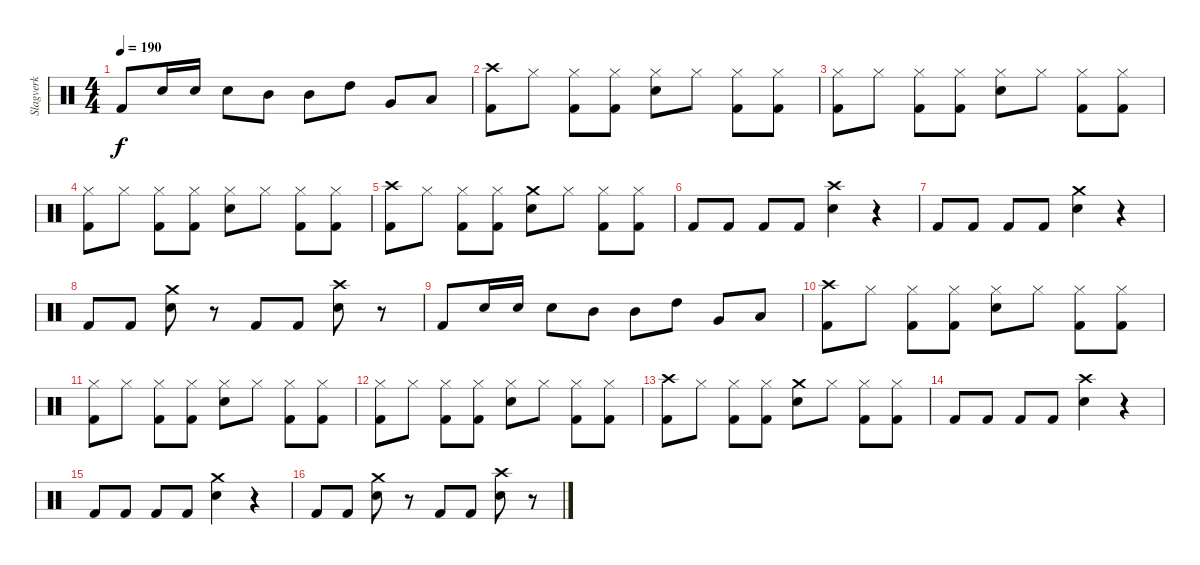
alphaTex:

\track ("Slagverk" "Slagverk") {instrument percussion}
\staff {score}
\articulation defaults
\ts (4 4)
\tempo 190
\clef neutral
\ks c "Kick (hit) 2".8{dy f} "Snare (hit) 2".16 "Snare (hit) 2".16 "Snare (hit) 2".8 "Mid Tom (hit)".8 "Mid Tom (hit)".8 "High Tom (hit)".8 "Very Low Tom (hit)".8 "Low Floor Tom (hit)".8
|
("Crash high (hit)" "Kick (hit) 2").8 "Hi-Hat (closed)".8 ("Hi-Hat (closed)" "Kick (hit) 2").8 ("Hi-Hat (closed)" "Kick (hit) 2").8 ("Hi-Hat (closed)" "Snare (hit) 2").8 "Hi-Hat (closed)".8 ("Hi-Hat (closed)" "Kick (hit) 2").8 ("Hi-Hat (closed)" "Kick (hit) 2").8 |
("Hi-Hat (closed)" "Kick (hit) 2").8 "Hi-Hat (closed)".8 ("Hi-Hat (closed)" "Kick (hit) 2").8 ("Hi-Hat (closed)" "Kick (hit) 2").8 ("Hi-Hat (closed)" "Snare (hit) 2").8 "Hi-Hat (closed)".8 ("Hi-Hat (closed)" "Kick (hit) 2").8 ("Hi-Hat (closed)" "Kick (hit) 2").8 |
("Hi-Hat (closed)" "Kick (hit) 2").8 "Hi-Hat (closed)".8 ("Hi-Hat (closed)" "Kick (hit) 2").8 ("Hi-Hat (closed)" "Kick (hit) 2").8 ("Hi-Hat (closed)" "Snare (hit) 2").8 "Hi-Hat (closed)".8 ("Hi-Hat (closed)" "Kick (hit) 2").8 ("Hi-Hat (closed)" "Kick (hit) 2").8 |
("Crash high (hit)" "Kick (hit) 2").8 "Hi-Hat (closed)".8 ("Hi-Hat (closed)" "Kick (hit) 2").8 ("Hi-Hat (closed)" "Kick (hit) 2").8 ("Crash medium (hit)" "Snare (hit) 2").8 "Hi-Hat (closed)".8 ("Hi-Hat (closed)" "Kick (hit) 2").8 ("Hi-Hat (closed)" "Kick (hit) 2").8 |
"Kick (hit) 2".8 "Kick (hit) 2".8 "Kick (hit) 2".8 "Kick (hit) 2".8 ("Crash high (hit)" "Snare (hit) 2").4 r.4 |
"Kick (hit) 2".8 "Kick (hit) 2".8 "Kick (hit) 2".8 "Kick (hit) 2".8 ("Crash medium (hit)" "Snare (hit) 2").4 r.4 |
"Kick (hit) 2".8 "Kick (hit) 2".8 ("Crash medium (hit)" "Snare (hit) 2").8 r.8 "Kick (hit) 2".8 "Kick (hit) 2".8 ("Crash high (hit)" "Snare (hit) 2").8 r.8 |
"Kick (hit) 2".8 "Snare (hit) 2".16 "Snare (hit) 2".16 "Snare (hit) 2".8 "Mid Tom (hit)".8 "Mid Tom (hit)".8 "High Tom (hit)".8 "Very Low Tom (hit)".8 "Low Floor Tom (hit)".8 |
("Crash high (hit)" "Kick (hit) 2").8 "Hi-Hat (closed)".8 ("Hi-Hat (closed)" "Kick (hit) 2").8 ("Hi-Hat (closed)" "Kick (hit) 2").8 ("Hi-Hat (closed)" "Snare (hit) 2").8 "Hi-Hat (closed)".8 ("Hi-Hat (closed)" "Kick (hit) 2").8 ("Hi-Hat (closed)" "Kick (hit) 2").8 |
("Hi-Hat (closed)" "Kick (hit) 2").8 "Hi-Hat (closed)".8 ("Hi-Hat (closed)" "Kick (hit) 2").8 ("Hi-Hat (closed)" "Kick (hit) 2").8 ("Hi-Hat (closed)" "Snare (hit) 2").8 "Hi-Hat (closed)".8 ("Hi-Hat (closed)" "Kick (hit) 2").8 ("Hi-Hat (closed)" "Kick (hit) 2").8 |
("Hi-Hat (closed)" "Kick (hit) 2").8 "Hi-Hat (closed)".8 ("Hi-Hat (closed)" "Kick (hit) 2").8 ("Hi-Hat (closed)" "Kick (hit) 2").8 ("Hi-Hat (closed)" "Snare (hit) 2").8 "Hi-Hat (closed)".8 ("Hi-Hat (closed)" "Kick (hit) 2").8 ("Hi-Hat (closed)" "Kick (hit) 2").8 |
("Crash high (hit)" "Kick (hit) 2").8 "Hi-Hat (closed)".8 ("Hi-Hat (closed)" "Kick (hit) 2").8 ("Hi-Hat (closed)" "Kick (hit) 2").8 ("Crash medium (hit)" "Snare (hit) 2").8 "Hi-Hat (closed)".8 ("Hi-Hat (closed)" "Kick (hit) 2").8 ("Hi-Hat (closed)" "Kick (hit) 2").8 |
"Kick (hit) 2".8 "Kick (hit) 2".8 "Kick (hit) 2".8 "Kick (hit) 2".8 ("Crash high (hit)" "Snare (hit) 2").4 r.4 |
"Kick (hit) 2".8 "Kick (hit) 2".8 "Kick (hit) 2".8 "Kick (hit) 2".8 ("Crash medium (hit)" "Snare (hit) 2").4 r.4 |
"Kick (hit) 2".8 "Kick (hit) 2".8 ("Crash medium (hit)" "Snare (hit) 2").8 r.8 "Kick (hit) 2".8 "Kick (hit) 2".8 ("Crash high (hit)" "Snare (hit) 2").8 r.8
